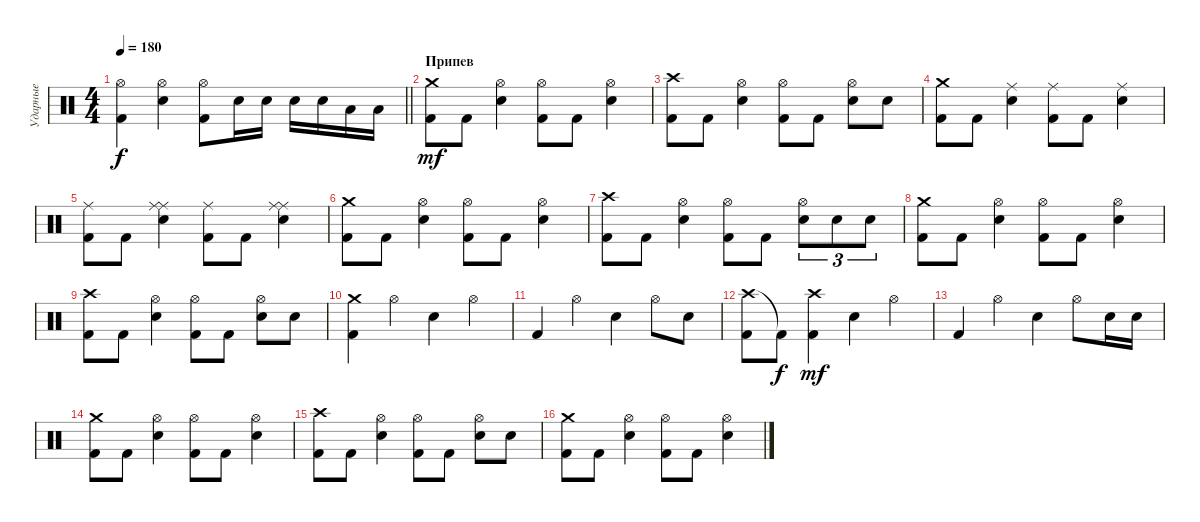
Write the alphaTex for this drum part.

\track ("Ударные" "Ударные") {instrument percussion}
\staff {score}
\articulation defaults
\ts (4 4)
\tempo 180
\clef neutral
\barLineRight lightlight
\ks c
("Hi-Hat (open)" "Kick (hit) 2").4{dy f} ("Hi-Hat (open)" "Snare (hit) 2").4 ("Hi-Hat (open)" "Kick (hit) 2").8 "Snare (hit) 2".16 "Snare (hit) 2".16 "Snare (hit) 2".16 "Snare (hit) 2".16 "Low Tom (hit)".16 "Low Tom (hit)".16 |
\section ("" "Припев")
("Crash medium (hit)" "Kick (hit) 2").8{dy mf} "Kick (hit) 2".8 ("Hi-Hat (open)" "Snare (hit) 2").4 ("Hi-Hat (open)" "Kick (hit) 2").8 "Kick (hit) 2".8 ("Hi-Hat (open)" "Snare (hit) 2").4 |
("Crash high (hit)" "Kick (hit) 2").8 "Kick (hit) 2".8 ("Hi-Hat (open)" "Snare (hit) 2").4 ("Hi-Hat (open)" "Kick (hit) 2").8 "Kick (hit) 2".8 ("Hi-Hat (open)" "Snare (hit) 2").8 "Snare (hit) 2".8 |
("Crash medium (hit)" "Kick (hit) 2").8 "Kick (hit) 2".8 ("Ride (middle)" "Snare (hit) 2").4 ("Ride (middle)" "Kick (hit) 2").8 "Kick (hit) 2".8 ("Ride (middle)" "Snare (hit) 2").4 |
("Ride (middle)" "Kick (hit) 2").8 "Kick (hit) 2".8 ("Ride (middle)" "Ride (middle)" "Snare (hit) 2").4 ("Ride (middle)" "Kick (hit) 2").8 "Kick (hit) 2".8 ("Ride (middle)" "Ride (middle)" "Snare (hit) 2").4 |
("Crash medium (hit)" "Kick (hit) 2").8 "Kick (hit) 2".8 ("Hi-Hat (open)" "Snare (hit) 2").4 ("Hi-Hat (open)" "Kick (hit) 2").8 "Kick (hit) 2".8 ("Hi-Hat (open)" "Snare (hit) 2").4 |
("Crash high (hit)" "Kick (hit) 2").8 "Kick (hit) 2".8 ("Hi-Hat (open)" "Snare (hit) 2").4 ("Hi-Hat (open)" "Kick (hit) 2").8 "Kick (hit) 2".8 ("Hi-Hat (open)" "Snare (hit) 2").8{tu (3 2)} "Snare (hit) 2".8{tu (3 2)} "Snare (hit) 2".8{tu (3 2)} |
("Crash medium (hit)" "Kick (hit) 2").8 "Kick (hit) 2".8 ("Hi-Hat (open)" "Snare (hit) 2").4 ("Hi-Hat (open)" "Kick (hit) 2").8 "Kick (hit) 2".8 ("Hi-Hat (open)" "Snare (hit) 2").4 |
("Crash high (hit)" "Kick (hit) 2").8 "Kick (hit) 2".8 ("Hi-Hat (open)" "Snare (hit) 2").4 ("Hi-Hat (open)" "Kick (hit) 2").8 "Kick (hit) 2".8 ("Hi-Hat (open)" "Snare (hit) 2").8 "Snare (hit) 2".8 |
("Crash medium (hit)" "Kick (hit) 2").4 "Hi-Hat (open)".4 "Snare (hit) 2".4 "Hi-Hat (open)".4 |
"Kick (hit) 2".4 "Hi-Hat (open)".4 "Snare (hit) 2".4 "Hi-Hat (open)".8 "Snare (hit) 2".8 |
("Crash high (hit)" "Kick (hit) 2").8 "Kick (hit) 2"{t}.8{dy f} ("Crash high (hit)" "Kick (hit) 2").4{dy mf} "Snare (hit) 2".4 "Hi-Hat (open)".4 |
"Kick (hit) 2".4 "Hi-Hat (open)".4 "Snare (hit) 2".4 "Hi-Hat (open)".8 "Snare (hit) 2".16 "Snare (hit) 2".16 |
("Crash medium (hit)" "Kick (hit) 2").8 "Kick (hit) 2".8 ("Hi-Hat (open)" "Snare (hit) 2").4 ("Hi-Hat (open)" "Kick (hit) 2").8 "Kick (hit) 2".8 ("Hi-Hat (open)" "Snare (hit) 2").4 |
("Crash high (hit)" "Kick (hit) 2").8 "Kick (hit) 2".8 ("Hi-Hat (open)" "Snare (hit) 2").4 ("Hi-Hat (open)" "Kick (hit) 2").8 "Kick (hit) 2".8 ("Hi-Hat (open)" "Snare (hit) 2").8 "Snare (hit) 2".8 |
("Crash medium (hit)" "Kick (hit) 2").8 "Kick (hit) 2".8 ("Hi-Hat (open)" "Snare (hit) 2").4 ("Hi-Hat (open)" "Kick (hit) 2").8 "Kick (hit) 2".8 ("Hi-Hat (open)" "Snare (hit) 2").4
